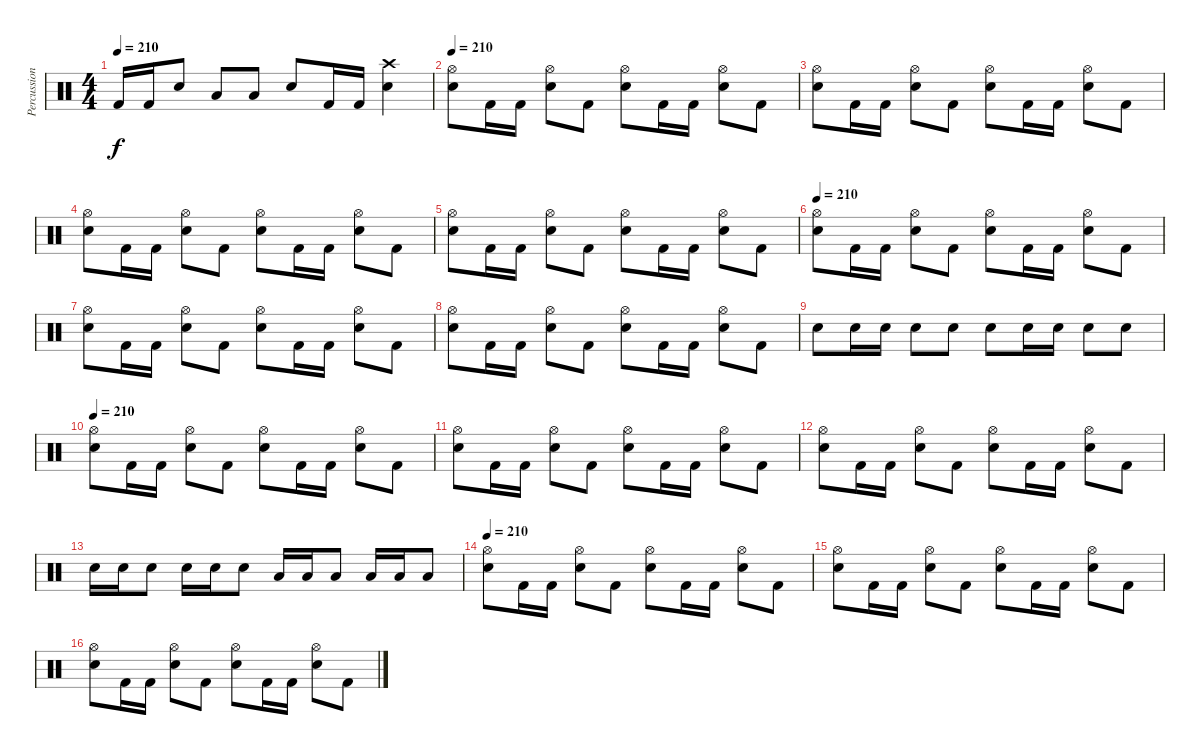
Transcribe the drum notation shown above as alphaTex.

\track ("Percussion" "Percussion") {instrument percussion}
\staff {score}
\articulation defaults
\ts (4 4)
\tempo 210
\clef neutral
\ks c "Kick (hit) 2".16{dy f} "Kick (hit) 2".16 "Electric Snare (hit)".8 "Low Tom (hit)".8 "Low Floor Tom (hit)".8 "Electric Snare (hit)".8 "Kick (hit) 2".16 "Kick (hit) 2".16
("Crash high (hit)" "Electric Snare (hit)").4 |
\tempo 210
("Hi-Hat (open)" "Electric Snare (hit)").8 "Kick (hit) 2".16 "Kick (hit) 2".16 ("Hi-Hat (open)" "Electric Snare (hit)").8 "Kick (hit) 2".8 ("Hi-Hat (open)" "Electric Snare (hit)").8 "Kick (hit) 2".16 "Kick (hit) 2".16 ("Hi-Hat (open)" "Electric Snare (hit)").8 "Kick (hit) 2".8 |
("Hi-Hat (open)" "Electric Snare (hit)").8 "Kick (hit) 2".16 "Kick (hit) 2".16 ("Hi-Hat (open)" "Electric Snare (hit)").8 "Kick (hit) 2".8 ("Hi-Hat (open)" "Electric Snare (hit)").8 "Kick (hit) 2".16 "Kick (hit) 2".16 ("Hi-Hat (open)" "Electric Snare (hit)").8 "Kick (hit) 2".8 |
("Hi-Hat (open)" "Electric Snare (hit)").8 "Kick (hit) 2".16 "Kick (hit) 2".16 ("Hi-Hat (open)" "Electric Snare (hit)").8 "Kick (hit) 2".8 ("Hi-Hat (open)" "Electric Snare (hit)").8 "Kick (hit) 2".16 "Kick (hit) 2".16 ("Hi-Hat (open)" "Electric Snare (hit)").8 "Kick (hit) 2".8 |
("Hi-Hat (open)" "Electric Snare (hit)").8 "Kick (hit) 2".16 "Kick (hit) 2".16 ("Hi-Hat (open)" "Electric Snare (hit)").8 "Kick (hit) 2".8 ("Hi-Hat (open)" "Electric Snare (hit)").8 "Kick (hit) 2".16 "Kick (hit) 2".16 ("Hi-Hat (open)" "Electric Snare (hit)").8 "Kick (hit) 2".8 |
\tempo 210
("Hi-Hat (open)" "Electric Snare (hit)").8 "Kick (hit) 2".16 "Kick (hit) 2".16 ("Hi-Hat (open)" "Electric Snare (hit)").8 "Kick (hit) 2".8 ("Hi-Hat (open)" "Electric Snare (hit)").8 "Kick (hit) 2".16 "Kick (hit) 2".16 ("Hi-Hat (open)" "Electric Snare (hit)").8 "Kick (hit) 2".8 |
("Hi-Hat (open)" "Electric Snare (hit)").8 "Kick (hit) 2".16 "Kick (hit) 2".16 ("Hi-Hat (open)" "Electric Snare (hit)").8 "Kick (hit) 2".8 ("Hi-Hat (open)" "Electric Snare (hit)").8 "Kick (hit) 2".16 "Kick (hit) 2".16 ("Hi-Hat (open)" "Electric Snare (hit)").8 "Kick (hit) 2".8 |
("Hi-Hat (open)" "Electric Snare (hit)").8 "Kick (hit) 2".16 "Kick (hit) 2".16 ("Hi-Hat (open)" "Electric Snare (hit)").8 "Kick (hit) 2".8 ("Hi-Hat (open)" "Electric Snare (hit)").8 "Kick (hit) 2".16 "Kick (hit) 2".16 ("Hi-Hat (open)" "Electric Snare (hit)").8 "Kick (hit) 2".8 |
"Electric Snare (hit)".8 "Electric Snare (hit)".16 "Electric Snare (hit)".16 "Electric Snare (hit)".8 "Electric Snare (hit)".8 "Electric Snare (hit)".8 "Electric Snare (hit)".16 "Electric Snare (hit)".16 "Electric Snare (hit)".8 "Electric Snare (hit)".8 |
\tempo 210
("Hi-Hat (open)" "Electric Snare (hit)").8 "Kick (hit) 2".16 "Kick (hit) 2".16 ("Hi-Hat (open)" "Electric Snare (hit)").8 "Kick (hit) 2".8 ("Hi-Hat (open)" "Electric Snare (hit)").8 "Kick (hit) 2".16 "Kick (hit) 2".16 ("Hi-Hat (open)" "Electric Snare (hit)").8 "Kick (hit) 2".8 |
("Hi-Hat (open)" "Electric Snare (hit)").8 "Kick (hit) 2".16 "Kick (hit) 2".16 ("Hi-Hat (open)" "Electric Snare (hit)").8 "Kick (hit) 2".8 ("Hi-Hat (open)" "Electric Snare (hit)").8 "Kick (hit) 2".16 "Kick (hit) 2".16 ("Hi-Hat (open)" "Electric Snare (hit)").8 "Kick (hit) 2".8 |
("Hi-Hat (open)" "Electric Snare (hit)").8 "Kick (hit) 2".16 "Kick (hit) 2".16 ("Hi-Hat (open)" "Electric Snare (hit)").8 "Kick (hit) 2".8 ("Hi-Hat (open)" "Electric Snare (hit)").8 "Kick (hit) 2".16 "Kick (hit) 2".16 ("Hi-Hat (open)" "Electric Snare (hit)").8 "Kick (hit) 2".8 |
"Electric Snare (hit)".16 "Electric Snare (hit)".16 "Electric Snare (hit)".8 "Electric Snare (hit)".16 "Electric Snare (hit)".16 "Electric Snare (hit)".8 "Low Tom (hit)".16 "Low Tom (hit)".16 "Low Tom (hit)".8 "Low Tom (hit)".16 "Low Tom (hit)".16 "Low Tom (hit)".8 |
\tempo 210
("Hi-Hat (open)" "Electric Snare (hit)").8 "Kick (hit) 2".16 "Kick (hit) 2".16 ("Hi-Hat (open)" "Electric Snare (hit)").8 "Kick (hit) 2".8 ("Hi-Hat (open)" "Electric Snare (hit)").8 "Kick (hit) 2".16 "Kick (hit) 2".16 ("Hi-Hat (open)" "Electric Snare (hit)").8 "Kick (hit) 2".8 |
("Hi-Hat (open)" "Electric Snare (hit)").8 "Kick (hit) 2".16 "Kick (hit) 2".16 ("Hi-Hat (open)" "Electric Snare (hit)").8 "Kick (hit) 2".8 ("Hi-Hat (open)" "Electric Snare (hit)").8 "Kick (hit) 2".16 "Kick (hit) 2".16 ("Hi-Hat (open)" "Electric Snare (hit)").8 "Kick (hit) 2".8 |
("Hi-Hat (open)" "Electric Snare (hit)").8 "Kick (hit) 2".16 "Kick (hit) 2".16 ("Hi-Hat (open)" "Electric Snare (hit)").8 "Kick (hit) 2".8 ("Hi-Hat (open)" "Electric Snare (hit)").8 "Kick (hit) 2".16 "Kick (hit) 2".16 ("Hi-Hat (open)" "Electric Snare (hit)").8 "Kick (hit) 2".8
